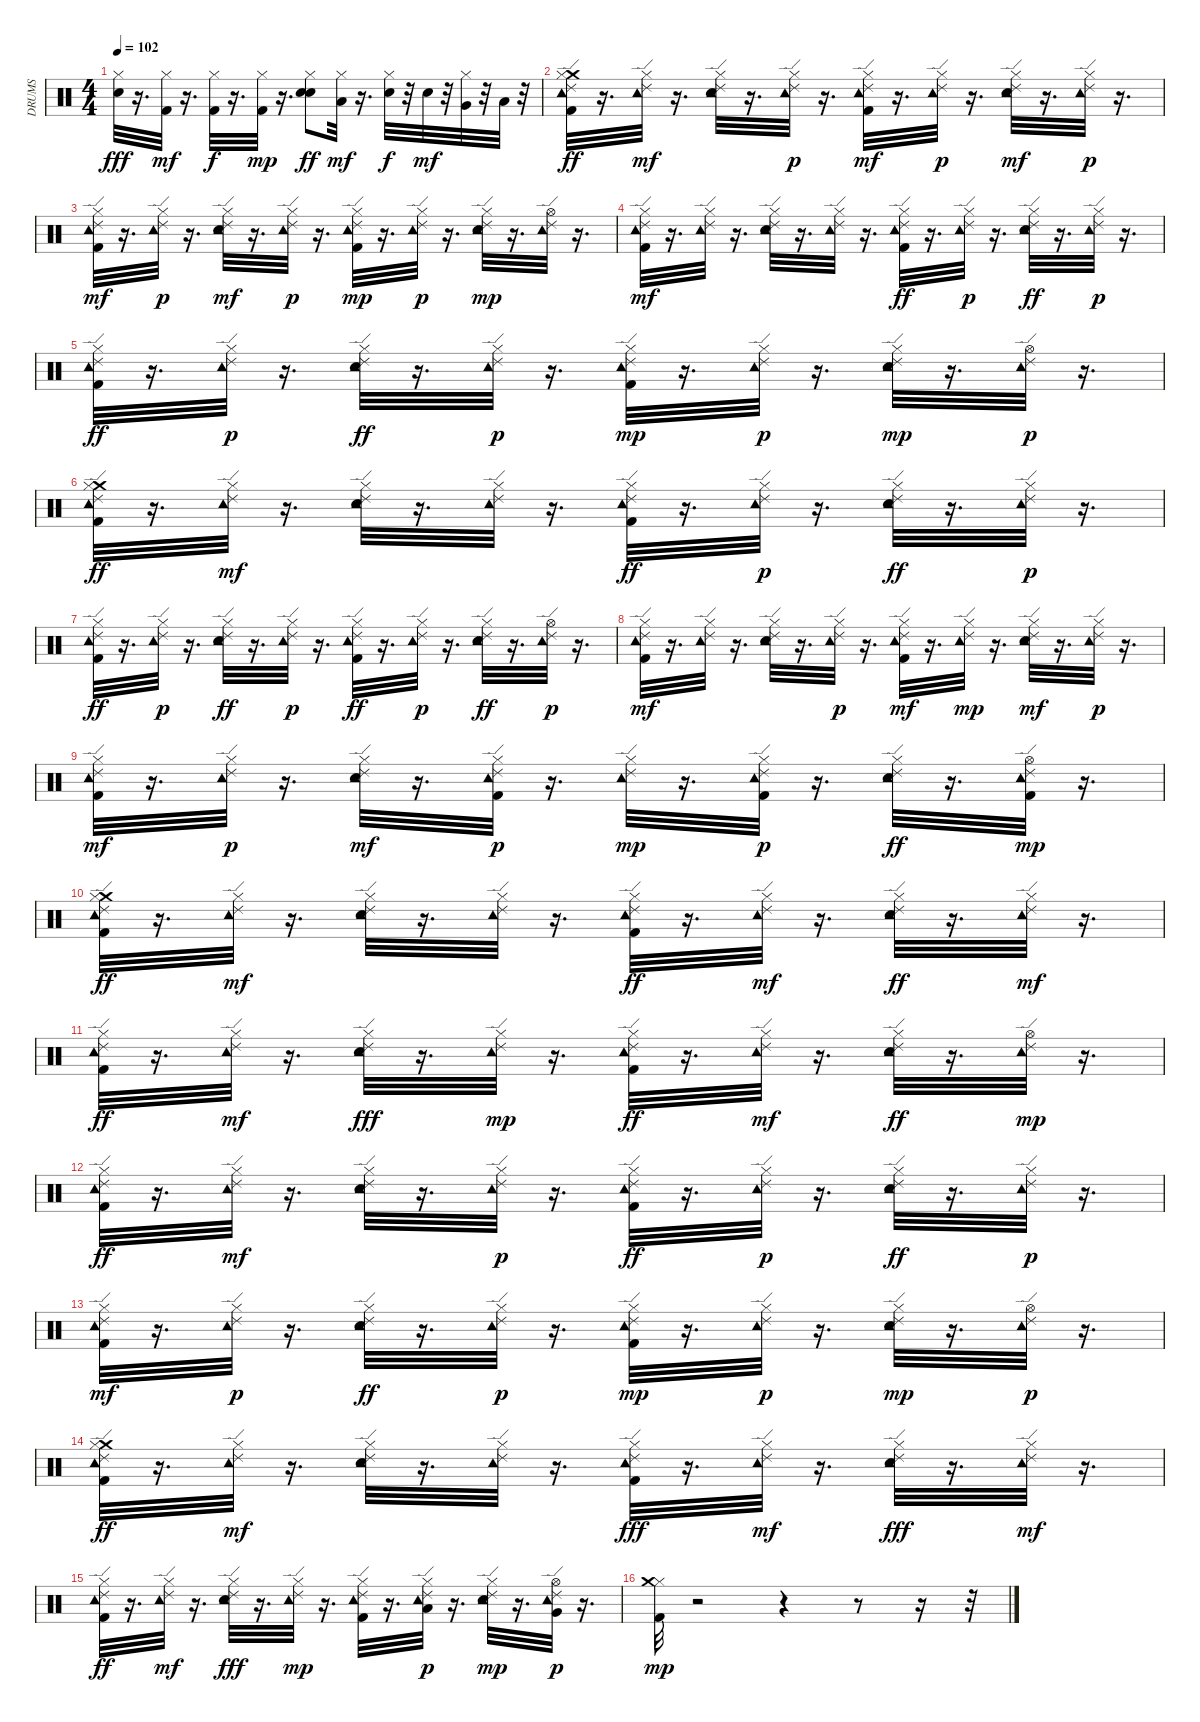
\track ("DRUMS" "DRUMS") {instrument percussion}
\staff {score}
\articulation defaults
\ts (4 4)
\tempo 102
\clef neutral
\ks c
("Electric Snare (hit)" "Hi-Hat (closed)").32{dy fff} r.16{d} ("Kick (hit) 2" "Hi-Hat (closed)").32{dy mf} r.16{d} ("Kick (hit) 2" "Hi-Hat (closed)").32{dy f} r.16{d} ("Kick (hit) 2" "Hi-Hat (closed)").32{dy mp} r.16{d} ("Electric Snare (hit)" "Hi-Hat (closed)" "Electric Snare (hit)").8{dy ff} ("Hi-Hat (closed)" "Low Tom (hit)").32{dy mf} r.16{d} ("Electric Snare (hit)" "Hi-Hat (closed)").32{dy f} r.32 "Electric Snare (hit)".32{dy mf} r.32 ("Very Low Tom (hit)" "Hi-Hat (closed)").32 r.32 "Low Floor Tom (hit)".32 r.32 |
("Ride (edge) 2" "Crash medium (hit)" "Tambourine (hit)" "Hi-Hat (closed)" "Kick (hit) 2").32{dy ff} r.16{d} ("Ride (edge) 2" "Tambourine (hit)" "Hi-Hat (closed)").32{dy mf} r.16{d} ("Electric Snare (hit)" "Hi-Hat (closed)" "Tambourine (hit)" "Ride (edge) 2").32 r.16{d} ("Hi-Hat (closed)" "Ride (edge) 2" "Tambourine (hit)").32{dy p} r.16{d} ("Hi-Hat (closed)" "Ride (edge) 2" "Kick (hit) 2" "Tambourine (hit)").32{dy mf} r.16{d} ("Hi-Hat (closed)" "Ride (edge) 2" "Tambourine (hit)").32{dy p} r.16{d} ("Hi-Hat (closed)" "Ride (edge) 2" "Electric Snare (hit)" "Tambourine (hit)").32{dy mf} r.16{d} ("Hi-Hat (closed)" "Ride (edge) 2" "Tambourine (hit)").32{dy p} r.16{d} |
("Hi-Hat (closed)" "Ride (edge) 2" "Kick (hit) 2" "Tambourine (hit)").32{dy mf} r.16{d} ("Hi-Hat (closed)" "Ride (edge) 2" "Tambourine (hit)").32{dy p} r.16{d} ("Hi-Hat (closed)" "Ride (edge) 2" "Electric Snare (hit)" "Tambourine (hit)").32{dy mf} r.16{d} ("Hi-Hat (closed)" "Ride (edge) 2" "Tambourine (hit)").32{dy p} r.16{d} ("Hi-Hat (closed)" "Ride (edge) 2" "Kick (hit) 2" "Tambourine (hit)").32{dy mp} r.16{d} ("Hi-Hat (closed)" "Ride (edge) 2" "Tambourine (hit)").32{dy p} r.16{d} ("Hi-Hat (closed)" "Ride (edge) 2" "Electric Snare (hit)" "Tambourine (hit)").32{dy mp} r.16{d} ("Tambourine (hit)" "Hi-Hat (open)" "Ride (edge) 2").32 r.16{d} |
("Kick (hit) 2" "Hi-Hat (closed)" "Tambourine (hit)" "Ride (edge) 2").32{dy mf} r.16{d} ("Tambourine (hit)" "Hi-Hat (closed)" "Ride (edge) 2").32 r.16{d} ("Electric Snare (hit)" "Hi-Hat (closed)" "Tambourine (hit)" "Ride (edge) 2").32 r.16{d} ("Tambourine (hit)" "Hi-Hat (closed)" "Ride (edge) 2").32 r.16{d} ("Tambourine (hit)" "Kick (hit) 2" "Ride (edge) 2" "Hi-Hat (closed)").32{dy ff} r.16{d} ("Hi-Hat (closed)" "Tambourine (hit)" "Ride (edge) 2").32{dy p} r.16{d} ("Tambourine (hit)" "Electric Snare (hit)" "Ride (edge) 2" "Hi-Hat (closed)").32{dy ff} r.16{d} ("Hi-Hat (closed)" "Tambourine (hit)" "Ride (edge) 2").32{dy p} r.16{d} |
("Tambourine (hit)" "Kick (hit) 2" "Ride (edge) 2" "Hi-Hat (closed)").32{dy ff} r.16{d} ("Hi-Hat (closed)" "Tambourine (hit)" "Ride (edge) 2").32{dy p} r.16{d} ("Tambourine (hit)" "Electric Snare (hit)" "Ride (edge) 2" "Hi-Hat (closed)").32{dy ff} r.16{d} ("Hi-Hat (closed)" "Tambourine (hit)" "Ride (edge) 2").32{dy p} r.16{d} ("Hi-Hat (closed)" "Ride (edge) 2" "Kick (hit) 2" "Tambourine (hit)").32{dy mp} r.16{d} ("Hi-Hat (closed)" "Tambourine (hit)" "Ride (edge) 2").32{dy p} r.16{d} ("Hi-Hat (closed)" "Ride (edge) 2" "Electric Snare (hit)" "Tambourine (hit)").32{dy mp} r.16{d} ("Hi-Hat (open)" "Tambourine (hit)" "Ride (edge) 2").32{dy p} r.16{d} |
("Ride (edge) 2" "Crash medium (hit)" "Tambourine (hit)" "Hi-Hat (closed)" "Kick (hit) 2").32{dy ff} r.16{d} ("Tambourine (hit)" "Hi-Hat (closed)" "Ride (edge) 2").32{dy mf} r.16{d} ("Electric Snare (hit)" "Hi-Hat (closed)" "Tambourine (hit)" "Ride (edge) 2").32 r.16{d} ("Tambourine (hit)" "Hi-Hat (closed)" "Ride (edge) 2").32 r.16{d} ("Tambourine (hit)" "Kick (hit) 2" "Ride (edge) 2" "Hi-Hat (closed)").32{dy ff} r.16{d} ("Hi-Hat (closed)" "Tambourine (hit)" "Ride (edge) 2").32{dy p} r.16{d} ("Tambourine (hit)" "Electric Snare (hit)" "Ride (edge) 2" "Hi-Hat (closed)").32{dy ff} r.16{d} ("Hi-Hat (closed)" "Tambourine (hit)" "Ride (edge) 2").32{dy p} r.16{d} |
("Tambourine (hit)" "Kick (hit) 2" "Ride (edge) 2" "Hi-Hat (closed)").32{dy ff} r.16{d} ("Hi-Hat (closed)" "Tambourine (hit)" "Ride (edge) 2").32{dy p} r.16{d} ("Tambourine (hit)" "Electric Snare (hit)" "Ride (edge) 2" "Hi-Hat (closed)").32{dy ff} r.16{d} ("Hi-Hat (closed)" "Tambourine (hit)" "Ride (edge) 2").32{dy p} r.16{d} ("Tambourine (hit)" "Kick (hit) 2" "Ride (edge) 2" "Hi-Hat (closed)").32{dy ff} r.16{d} ("Hi-Hat (closed)" "Tambourine (hit)" "Ride (edge) 2").32{dy p} r.16{d} ("Tambourine (hit)" "Electric Snare (hit)" "Ride (edge) 2" "Hi-Hat (closed)").32{dy ff} r.16{d} ("Hi-Hat (open)" "Tambourine (hit)" "Ride (edge) 2").32{dy p} r.16{d} |
("Kick (hit) 2" "Hi-Hat (closed)" "Tambourine (hit)" "Ride (edge) 2").32{dy mf} r.16{d} ("Ride (edge) 2" "Tambourine (hit)" "Hi-Hat (closed)").32 r.16{d} ("Electric Snare (hit)" "Hi-Hat (closed)" "Tambourine (hit)" "Ride (edge) 2").32 r.16{d} ("Hi-Hat (closed)" "Tambourine (hit)" "Ride (edge) 2").32{dy p} r.16{d} ("Hi-Hat (closed)" "Ride (edge) 2" "Kick (hit) 2" "Tambourine (hit)").32{dy mf} r.16{d} ("Ride (edge) 2" "Hi-Hat (closed)" "Tambourine (hit)").32{dy mp} r.16{d} ("Hi-Hat (closed)" "Ride (edge) 2" "Electric Snare (hit)" "Tambourine (hit)").32{dy mf} r.16{d} ("Ride (edge) 2" "Hi-Hat (closed)" "Tambourine (hit)").32{dy p} r.16{d} |
("Hi-Hat (closed)" "Ride (edge) 2" "Kick (hit) 2" "Tambourine (hit)").32{dy mf} r.16{d} ("Ride (edge) 2" "Hi-Hat (closed)" "Tambourine (hit)").32{dy p} r.16{d} ("Hi-Hat (closed)" "Ride (edge) 2" "Electric Snare (hit)" "Tambourine (hit)").32{dy mf} r.16{d} ("Kick (hit) 2" "Ride (edge) 2" "Hi-Hat (closed)" "Tambourine (hit)").32{dy p} r.16{d} ("Hi-Hat (closed)" "Ride (edge) 2" "Tambourine (hit)").32{dy mp} r.16{d} ("Kick (hit) 2" "Ride (edge) 2" "Hi-Hat (closed)" "Tambourine (hit)").32{dy p} r.16{d} ("Tambourine (hit)" "Electric Snare (hit)" "Ride (edge) 2" "Hi-Hat (closed)").32{dy ff} r.16{d} ("Tambourine (hit)" "Hi-Hat (open)" "Kick (hit) 2" "Ride (edge) 2").32{dy mp} r.16{d} |
("Tambourine (hit)" "Ride (edge) 2" "Crash medium (hit)" "Hi-Hat (closed)" "Kick (hit) 2").32{dy ff} r.16{d} ("Ride (edge) 2" "Tambourine (hit)" "Hi-Hat (closed)").32{dy mf} r.16{d} ("Electric Snare (hit)" "Hi-Hat (closed)" "Tambourine (hit)" "Ride (edge) 2").32 r.16{d} ("Tambourine (hit)" "Hi-Hat (closed)" "Ride (edge) 2").32 r.16{d} ("Tambourine (hit)" "Kick (hit) 2" "Ride (edge) 2" "Hi-Hat (closed)").32{dy ff} r.16{d} ("Tambourine (hit)" "Hi-Hat (closed)" "Ride (edge) 2").32{dy mf} r.16{d} ("Tambourine (hit)" "Electric Snare (hit)" "Ride (edge) 2" "Hi-Hat (closed)").32{dy ff} r.16{d} ("Tambourine (hit)" "Hi-Hat (closed)" "Ride (edge) 2").32{dy mf} r.16{d} |
("Tambourine (hit)" "Kick (hit) 2" "Ride (edge) 2" "Hi-Hat (closed)").32{dy ff} r.16{d} ("Tambourine (hit)" "Hi-Hat (closed)" "Ride (edge) 2").32{dy mf} r.16{d} ("Tambourine (hit)" "Electric Snare (hit)" "Ride (edge) 2" "Hi-Hat (closed)").32{dy fff} r.16{d} ("Tambourine (hit)" "Hi-Hat (closed)" "Ride (edge) 2").32{dy mp} r.16{d} ("Tambourine (hit)" "Kick (hit) 2" "Ride (edge) 2" "Hi-Hat (closed)").32{dy ff} r.16{d} ("Tambourine (hit)" "Hi-Hat (closed)" "Ride (edge) 2").32{dy mf} r.16{d} ("Tambourine (hit)" "Electric Snare (hit)" "Ride (edge) 2" "Hi-Hat (closed)").32{dy ff} r.16{d} ("Ride (edge) 2" "Tambourine (hit)" "Hi-Hat (open)").32{dy mp} r.16{d} |
("Ride (edge) 2" "Tambourine (hit)" "Hi-Hat (closed)" "Kick (hit) 2").32{dy ff} r.16{d} ("Ride (edge) 2" "Tambourine (hit)" "Hi-Hat (closed)").32{dy mf} r.16{d} ("Electric Snare (hit)" "Hi-Hat (closed)" "Tambourine (hit)" "Ride (edge) 2").32 r.16{d} ("Hi-Hat (closed)" "Ride (edge) 2" "Tambourine (hit)").32{dy p} r.16{d} ("Kick (hit) 2" "Ride (edge) 2" "Tambourine (hit)" "Hi-Hat (closed)").32{dy ff} r.16{d} ("Ride (edge) 2" "Hi-Hat (closed)" "Tambourine (hit)").32{dy p} r.16{d} ("Electric Snare (hit)" "Ride (edge) 2" "Tambourine (hit)" "Hi-Hat (closed)").32{dy ff} r.16{d} ("Ride (edge) 2" "Hi-Hat (closed)" "Tambourine (hit)").32{dy p} r.16{d} |
("Kick (hit) 2" "Ride (edge) 2" "Tambourine (hit)" "Hi-Hat (closed)").32{dy mf} r.16{d} ("Ride (edge) 2" "Hi-Hat (closed)" "Tambourine (hit)").32{dy p} r.16{d} ("Tambourine (hit)" "Electric Snare (hit)" "Ride (edge) 2" "Hi-Hat (closed)").32{dy ff} r.16{d} ("Hi-Hat (closed)" "Tambourine (hit)" "Ride (edge) 2").32{dy p} r.16{d} ("Hi-Hat (closed)" "Ride (edge) 2" "Kick (hit) 2" "Tambourine (hit)").32{dy mp} r.16{d} ("Hi-Hat (closed)" "Tambourine (hit)" "Ride (edge) 2").32{dy p} r.16{d} ("Hi-Hat (closed)" "Ride (edge) 2" "Electric Snare (hit)" "Tambourine (hit)").32{dy mp} r.16{d} ("Hi-Hat (open)" "Tambourine (hit)" "Ride (edge) 2").32{dy p} r.16{d} |
("Ride (edge) 2" "Crash medium (hit)" "Tambourine (hit)" "Hi-Hat (closed)" "Kick (hit) 2").32{dy ff} r.16{d} ("Ride (edge) 2" "Tambourine (hit)" "Hi-Hat (closed)").32{dy mf} r.16{d} ("Electric Snare (hit)" "Hi-Hat (closed)" "Tambourine (hit)" "Ride (edge) 2").32 r.16{d} ("Ride (edge) 2" "Tambourine (hit)" "Hi-Hat (closed)").32 r.16{d} ("Ride (edge) 2" "Tambourine (hit)" "Hi-Hat (closed)" "Kick (hit) 2").32{dy fff} r.16{d} ("Ride (edge) 2" "Tambourine (hit)" "Hi-Hat (closed)").32{dy mf} r.16{d} ("Ride (edge) 2" "Tambourine (hit)" "Hi-Hat (closed)" "Electric Snare (hit)").32{dy fff} r.16{d} ("Ride (edge) 2" "Tambourine (hit)" "Hi-Hat (closed)").32{dy mf} r.16{d} |
("Ride (edge) 2" "Tambourine (hit)" "Hi-Hat (closed)" "Kick (hit) 2").32{dy ff} r.16{d} ("Ride (edge) 2" "Tambourine (hit)" "Hi-Hat (closed)").32{dy mf} r.16{d} ("Ride (edge) 2" "Tambourine (hit)" "Hi-Hat (closed)" "Electric Snare (hit)").32{dy fff} r.16{d} ("Ride (edge) 2" "Tambourine (hit)" "Hi-Hat (closed)").32{dy mp} r.16{d} ("Ride (edge) 2" "Hi-Hat (closed)" "Kick (hit) 2" "Tambourine (hit)").32 r.16{d} ("Low Tom (hit)" "Ride (edge) 2" "Hi-Hat (closed)" "Tambourine (hit)").32{dy p} r.16{d} ("Ride (edge) 2" "Hi-Hat (closed)" "Electric Snare (hit)" "Tambourine (hit)").32{dy mp} r.16{d} ("Hi-Hat (open)" "Very Low Tom (hit)" "Ride (edge) 2" "Tambourine (hit)").32{dy p} r.16{d} |
("Hi-Hat (closed)" "Kick (hit) 2" "Crash medium (hit)").32{dy mp} r.2 r.4 r.8 r.16 r.32
